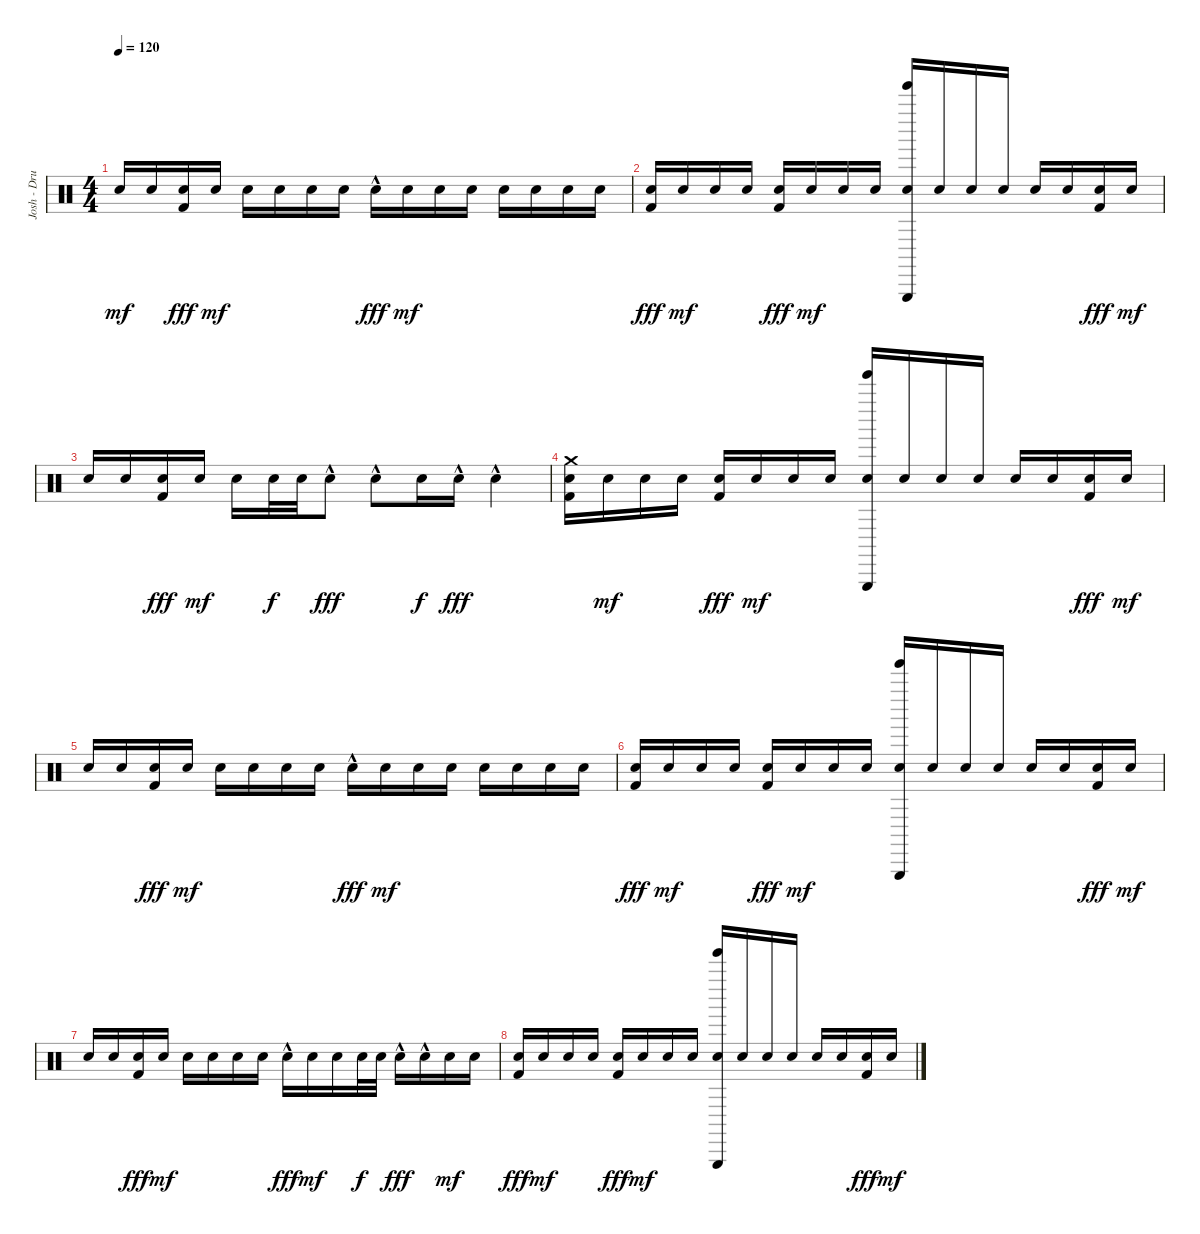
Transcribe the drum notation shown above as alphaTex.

\track ("Josh - Drums" "Josh - Dru") {instrument percussion}
\staff {score}
\articulation defaults
\ts (4 4)
\tempo 120
\clef neutral
\ks c "Electric Snare (hit)".16{dy mf} "Electric Snare (hit)".16
("Electric Snare (hit)" "Kick (hit) 2").16{dy fff} "Electric Snare (hit)".16{dy mf} "Electric Snare (hit)".16 "Electric Snare (hit)".16 "Electric Snare (hit)".16 "Electric Snare (hit)".16 "Snare (hit) 2"{hac}.16{dy fff} "Electric Snare (hit)".16{dy mf} "Electric Snare (hit)".16 "Electric Snare (hit)".16 "Electric Snare (hit)".16 "Electric Snare (hit)".16 "Electric Snare (hit)".16 "Electric Snare (hit)".16 |
("Electric Snare (hit)" "Kick (hit) 2").16{dy fff} "Electric Snare (hit)".16{dy mf} "Electric Snare (hit)".16 "Electric Snare (hit)".16 ("Electric Snare (hit)" "Kick (hit) 2").16{dy fff} "Electric Snare (hit)".16{dy mf} "Electric Snare (hit)".16 "Electric Snare (hit)".16 ("Electric Snare (hit)" "Tinkle Bell (hit)" "Triangle (hit)").16 "Electric Snare (hit)".16 "Electric Snare (hit)".16 "Electric Snare (hit)".16 "Electric Snare (hit)".16 "Electric Snare (hit)".16 ("Electric Snare (hit)" "Kick (hit) 2").16{dy fff} "Electric Snare (hit)".16{dy mf} |
"Electric Snare (hit)".16 "Electric Snare (hit)".16 ("Electric Snare (hit)" "Kick (hit) 2").16{dy fff} "Electric Snare (hit)".16{dy mf} "Electric Snare (hit)".16 "Snare (hit) 2".32{dy f} "Snare (hit) 2".32 "Snare (hit) 2"{hac}.8{dy fff} "Snare (hit) 2"{hac}.8 "Snare (hit) 2".16{dy f} "Snare (hit) 2"{hac}.16{dy fff} "Snare (hit) 2"{hac}.4 |
("Crash medium (hit)" "Electric Snare (hit)" "Kick (hit) 2").16 "Electric Snare (hit)".16{dy mf} "Electric Snare (hit)".16 "Electric Snare (hit)".16 ("Electric Snare (hit)" "Kick (hit) 2").16{dy fff} "Electric Snare (hit)".16{dy mf} "Electric Snare (hit)".16 "Electric Snare (hit)".16 ("Electric Snare (hit)" "Tinkle Bell (hit)" "Triangle (hit)").16 "Electric Snare (hit)".16 "Electric Snare (hit)".16 "Electric Snare (hit)".16 "Electric Snare (hit)".16 "Electric Snare (hit)".16 ("Electric Snare (hit)" "Kick (hit) 2").16{dy fff} "Electric Snare (hit)".16{dy mf} |
"Electric Snare (hit)".16 "Electric Snare (hit)".16 ("Electric Snare (hit)" "Kick (hit) 2").16{dy fff} "Electric Snare (hit)".16{dy mf} "Electric Snare (hit)".16 "Electric Snare (hit)".16 "Electric Snare (hit)".16 "Electric Snare (hit)".16 "Snare (hit) 2"{hac}.16{dy fff} "Electric Snare (hit)".16{dy mf} "Electric Snare (hit)".16 "Electric Snare (hit)".16 "Electric Snare (hit)".16 "Electric Snare (hit)".16 "Electric Snare (hit)".16 "Electric Snare (hit)".16 |
("Electric Snare (hit)" "Kick (hit) 2").16{dy fff} "Electric Snare (hit)".16{dy mf} "Electric Snare (hit)".16 "Electric Snare (hit)".16 ("Electric Snare (hit)" "Kick (hit) 2").16{dy fff} "Electric Snare (hit)".16{dy mf} "Electric Snare (hit)".16 "Electric Snare (hit)".16 ("Electric Snare (hit)" "Tinkle Bell (hit)" "Triangle (hit)").16 "Electric Snare (hit)".16 "Electric Snare (hit)".16 "Electric Snare (hit)".16 "Electric Snare (hit)".16 "Electric Snare (hit)".16 ("Electric Snare (hit)" "Kick (hit) 2").16{dy fff} "Electric Snare (hit)".16{dy mf} |
"Electric Snare (hit)".16 "Electric Snare (hit)".16 ("Electric Snare (hit)" "Kick (hit) 2").16{dy fff} "Electric Snare (hit)".16{dy mf} "Electric Snare (hit)".16 "Electric Snare (hit)".16 "Electric Snare (hit)".16 "Electric Snare (hit)".16 "Snare (hit) 2"{hac}.16{dy fff} "Electric Snare (hit)".16{dy mf} "Electric Snare (hit)".16 "Snare (hit) 2".32{dy f} "Snare (hit) 2".32 "Snare (hit) 2"{hac}.16{dy fff} "Snare (hit) 2"{hac}.16 "Electric Snare (hit)".16{dy mf} "Electric Snare (hit)".16 |
("Electric Snare (hit)" "Kick (hit) 2").16{dy fff} "Electric Snare (hit)".16{dy mf} "Electric Snare (hit)".16 "Electric Snare (hit)".16 ("Electric Snare (hit)" "Kick (hit) 2").16{dy fff} "Electric Snare (hit)".16{dy mf} "Electric Snare (hit)".16 "Electric Snare (hit)".16 ("Electric Snare (hit)" "Tinkle Bell (hit)" "Triangle (hit)").16 "Electric Snare (hit)".16 "Electric Snare (hit)".16 "Electric Snare (hit)".16 "Electric Snare (hit)".16 "Electric Snare (hit)".16 ("Electric Snare (hit)" "Kick (hit) 2").16{dy fff} "Electric Snare (hit)".16{dy mf}
